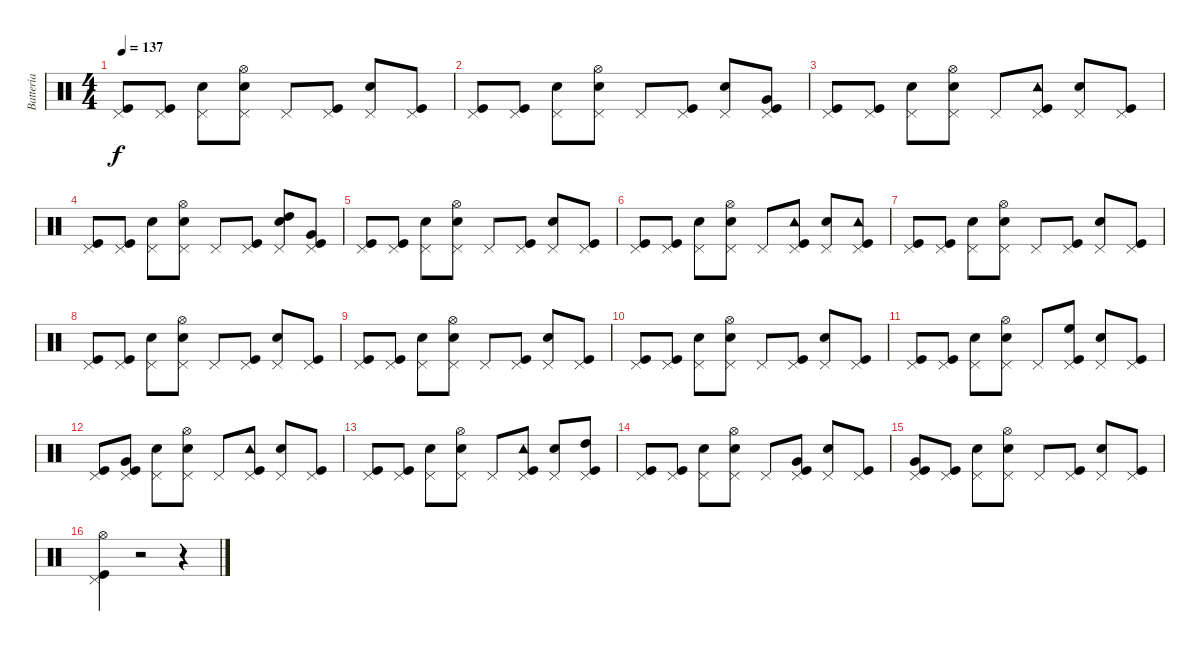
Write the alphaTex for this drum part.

\track ("Batteria" "Batteria") {instrument percussion}
\staff {score}
\articulation defaults
\ts (4 4)
\tempo 137
\clef neutral
\ks c
("Pedal Hi-Hat (hit)" "Kick (hit)").8{dy f} ("Pedal Hi-Hat (hit)" "Kick (hit)").8 ("Pedal Hi-Hat (hit)" "Electric Snare (hit)").8 ("Pedal Hi-Hat (hit)" "Hi-Hat (open)" "Electric Snare (hit)").8 "Pedal Hi-Hat (hit)".8 ("Pedal Hi-Hat (hit)" "Kick (hit)").8 ("Pedal Hi-Hat (hit)" "Electric Snare (hit)").8 ("Pedal Hi-Hat (hit)" "Kick (hit)").8 |
("Pedal Hi-Hat (hit)" "Kick (hit)").8 ("Pedal Hi-Hat (hit)" "Kick (hit)").8 ("Pedal Hi-Hat (hit)" "Electric Snare (hit)").8 ("Pedal Hi-Hat (hit)" "Hi-Hat (open)" "Electric Snare (hit)").8 "Pedal Hi-Hat (hit)".8 ("Pedal Hi-Hat (hit)" "Kick (hit)").8 ("Pedal Hi-Hat (hit)" "Electric Snare (hit)").8 ("Pedal Hi-Hat (hit)" "Very Low Tom (hit)" "Kick (hit)").8 |
("Pedal Hi-Hat (hit)" "Kick (hit)").8 ("Pedal Hi-Hat (hit)" "Kick (hit)").8 ("Pedal Hi-Hat (hit)" "Electric Snare (hit)").8 ("Pedal Hi-Hat (hit)" "Hi-Hat (open)" "Electric Snare (hit)").8 "Pedal Hi-Hat (hit)".8 ("Pedal Hi-Hat (hit)" "Tambourine (hit)" "Kick (hit)").8 ("Pedal Hi-Hat (hit)" "Electric Snare (hit)").8 ("Pedal Hi-Hat (hit)" "Kick (hit)").8 |
("Pedal Hi-Hat (hit)" "Kick (hit)").8 ("Pedal Hi-Hat (hit)" "Kick (hit)").8 ("Pedal Hi-Hat (hit)" "Electric Snare (hit)").8 ("Pedal Hi-Hat (hit)" "Hi-Hat (open)" "Electric Snare (hit)").8 "Pedal Hi-Hat (hit)".8 ("Pedal Hi-Hat (hit)" "Kick (hit)").8 ("Pedal Hi-Hat (hit)" "High Tom (hit)" "Electric Snare (hit)").8 ("Pedal Hi-Hat (hit)" "Very Low Tom (hit)" "Kick (hit)").8 |
("Pedal Hi-Hat (hit)" "Kick (hit)").8 ("Pedal Hi-Hat (hit)" "Kick (hit)").8 ("Pedal Hi-Hat (hit)" "Electric Snare (hit)").8 ("Pedal Hi-Hat (hit)" "Hi-Hat (open)" "Electric Snare (hit)").8 "Pedal Hi-Hat (hit)".8 ("Pedal Hi-Hat (hit)" "Kick (hit)").8 ("Pedal Hi-Hat (hit)" "Electric Snare (hit)").8 ("Pedal Hi-Hat (hit)" "Kick (hit)").8 |
("Pedal Hi-Hat (hit)" "Kick (hit)").8 ("Pedal Hi-Hat (hit)" "Kick (hit)").8 ("Pedal Hi-Hat (hit)" "Electric Snare (hit)").8 ("Pedal Hi-Hat (hit)" "Hi-Hat (open)" "Electric Snare (hit)").8 "Pedal Hi-Hat (hit)".8 ("Pedal Hi-Hat (hit)" "Tambourine (hit)" "Kick (hit)").8 ("Pedal Hi-Hat (hit)" "Electric Snare (hit)").8 ("Pedal Hi-Hat (hit)" "Tambourine (hit)" "Kick (hit)").8 |
("Pedal Hi-Hat (hit)" "Kick (hit)").8 ("Pedal Hi-Hat (hit)" "Kick (hit)").8 ("Pedal Hi-Hat (hit)" "Electric Snare (hit)").8 ("Pedal Hi-Hat (hit)" "Hi-Hat (open)" "Electric Snare (hit)").8 "Pedal Hi-Hat (hit)".8 ("Pedal Hi-Hat (hit)" "Kick (hit)").8 ("Pedal Hi-Hat (hit)" "Electric Snare (hit)").8 ("Pedal Hi-Hat (hit)" "Kick (hit)").8 |
("Pedal Hi-Hat (hit)" "Kick (hit)").8 ("Pedal Hi-Hat (hit)" "Kick (hit)").8 ("Pedal Hi-Hat (hit)" "Electric Snare (hit)").8 ("Pedal Hi-Hat (hit)" "Hi-Hat (open)" "Electric Snare (hit)").8 "Pedal Hi-Hat (hit)".8 ("Pedal Hi-Hat (hit)" "Kick (hit)").8 ("Pedal Hi-Hat (hit)" "Electric Snare (hit)").8 ("Pedal Hi-Hat (hit)" "Kick (hit)").8 |
("Pedal Hi-Hat (hit)" "Kick (hit)").8 ("Pedal Hi-Hat (hit)" "Kick (hit)").8 ("Pedal Hi-Hat (hit)" "Electric Snare (hit)").8 ("Pedal Hi-Hat (hit)" "Hi-Hat (open)" "Electric Snare (hit)").8 "Pedal Hi-Hat (hit)".8 ("Pedal Hi-Hat (hit)" "Kick (hit)").8 ("Pedal Hi-Hat (hit)" "Electric Snare (hit)").8 ("Pedal Hi-Hat (hit)" "Kick (hit)").8 |
("Pedal Hi-Hat (hit)" "Kick (hit)").8 ("Pedal Hi-Hat (hit)" "Kick (hit)").8 ("Pedal Hi-Hat (hit)" "Electric Snare (hit)").8 ("Pedal Hi-Hat (hit)" "Hi-Hat (open)" "Electric Snare (hit)").8 "Pedal Hi-Hat (hit)".8 ("Pedal Hi-Hat (hit)" "Kick (hit)").8 ("Pedal Hi-Hat (hit)" "Electric Snare (hit)").8 ("Pedal Hi-Hat (hit)" "Kick (hit)").8 |
("Pedal Hi-Hat (hit)" "Kick (hit)").8 ("Pedal Hi-Hat (hit)" "Kick (hit)").8 ("Pedal Hi-Hat (hit)" "Electric Snare (hit)").8 ("Pedal Hi-Hat (hit)" "Hi-Hat (open)" "Electric Snare (hit)").8 "Pedal Hi-Hat (hit)".8 ("Pedal Hi-Hat (hit)" "High Floor Tom (hit)" "Kick (hit)").8 ("Pedal Hi-Hat (hit)" "Electric Snare (hit)").8 ("Pedal Hi-Hat (hit)" "Kick (hit)").8 |
("Pedal Hi-Hat (hit)" "Kick (hit)").8 ("Pedal Hi-Hat (hit)" "Very Low Tom (hit)" "Kick (hit)").8 ("Pedal Hi-Hat (hit)" "Electric Snare (hit)").8 ("Pedal Hi-Hat (hit)" "Hi-Hat (open)" "Electric Snare (hit)").8 "Pedal Hi-Hat (hit)".8 ("Pedal Hi-Hat (hit)" "Tambourine (hit)" "Kick (hit)").8 ("Pedal Hi-Hat (hit)" "Electric Snare (hit)").8 ("Pedal Hi-Hat (hit)" "Kick (hit)").8 |
("Pedal Hi-Hat (hit)" "Kick (hit)").8 ("Pedal Hi-Hat (hit)" "Kick (hit)").8 ("Pedal Hi-Hat (hit)" "Electric Snare (hit)").8 ("Pedal Hi-Hat (hit)" "Hi-Hat (open)" "Electric Snare (hit)").8 "Pedal Hi-Hat (hit)".8 ("Pedal Hi-Hat (hit)" "Tambourine (hit)" "Kick (hit)").8 ("Pedal Hi-Hat (hit)" "Electric Snare (hit)").8 ("Pedal Hi-Hat (hit)" "High Tom (hit)" "Kick (hit)").8 |
("Pedal Hi-Hat (hit)" "Kick (hit)").8 ("Pedal Hi-Hat (hit)" "Kick (hit)").8 ("Pedal Hi-Hat (hit)" "Electric Snare (hit)").8 ("Pedal Hi-Hat (hit)" "Hi-Hat (open)" "Electric Snare (hit)").8 "Pedal Hi-Hat (hit)".8 ("Pedal Hi-Hat (hit)" "Very Low Tom (hit)" "Kick (hit)").8 ("Pedal Hi-Hat (hit)" "Electric Snare (hit)").8 ("Pedal Hi-Hat (hit)" "Kick (hit)").8 |
("Pedal Hi-Hat (hit)" "Very Low Tom (hit)" "Kick (hit)").8 ("Pedal Hi-Hat (hit)" "Kick (hit)").8 ("Pedal Hi-Hat (hit)" "Electric Snare (hit)").8 ("Pedal Hi-Hat (hit)" "Hi-Hat (open)" "Electric Snare (hit)").8 "Pedal Hi-Hat (hit)".8 ("Pedal Hi-Hat (hit)" "Kick (hit)").8 ("Pedal Hi-Hat (hit)" "Electric Snare (hit)").8 ("Pedal Hi-Hat (hit)" "Kick (hit)").8 |
("Pedal Hi-Hat (hit)" "Hi-Hat (open)" "Kick (hit)").4 r.2 r.4
